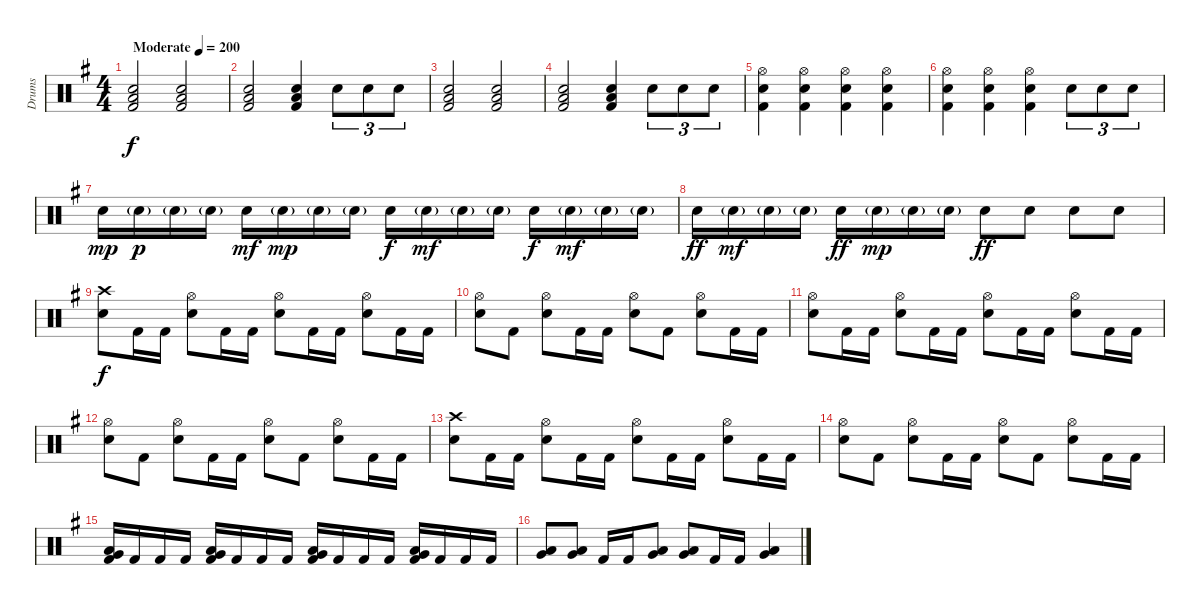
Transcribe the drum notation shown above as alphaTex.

\track ("Drums" "Drums") {instrument percussion}
\staff {score}
\articulation defaults
\ts (4 4)
\tempo (200 "Moderate")
\clef neutral
\ks eminor
("Low Floor Tom (hit)" "Snare (hit) 2" "Kick (hit) 2").2{dy f} ("Low Floor Tom (hit)" "Snare (hit) 2" "Kick (hit) 2").2 |
("Low Floor Tom (hit)" "Snare (hit) 2" "Kick (hit) 2").2 ("Low Floor Tom (hit)" "Snare (hit) 2" "Kick (hit) 2").4 "Snare (hit) 2".8{tu (3 2)} "Snare (hit) 2".8{tu (3 2)} "Snare (hit) 2".8{tu (3 2)} |
("Low Floor Tom (hit)" "Snare (hit) 2" "Kick (hit) 2").2 ("Low Floor Tom (hit)" "Snare (hit) 2" "Kick (hit) 2").2 |
("Low Floor Tom (hit)" "Snare (hit) 2" "Kick (hit) 2").2 ("Low Floor Tom (hit)" "Snare (hit) 2" "Kick (hit) 2").4 "Snare (hit) 2".8{tu (3 2)} "Snare (hit) 2".8{tu (3 2)} "Snare (hit) 2".8{tu (3 2)} |
("Hi-Hat (open)" "Snare (hit) 2" "Kick (hit) 2").4 ("Hi-Hat (open)" "Snare (hit) 2" "Kick (hit) 2").4 ("Hi-Hat (open)" "Snare (hit) 2" "Kick (hit) 2").4 ("Hi-Hat (open)" "Snare (hit) 2" "Kick (hit) 2").4 |
("Hi-Hat (open)" "Snare (hit) 2" "Kick (hit) 2").4 ("Hi-Hat (open)" "Snare (hit) 2" "Kick (hit) 2").4 ("Hi-Hat (open)" "Snare (hit) 2" "Kick (hit) 2").4 "Snare (hit) 2".8{tu (3 2)} "Snare (hit) 2".8{tu (3 2)} "Snare (hit) 2".8{tu (3 2)} |
"Snare (hit) 2".16{dy mp} "Snare (hit) 2"{g}.16{dy p} "Snare (hit) 2"{g}.16 "Snare (hit) 2"{g}.16 "Snare (hit) 2".16{dy mf} "Snare (hit) 2"{g}.16{dy mp} "Snare (hit) 2"{g}.16 "Snare (hit) 2"{g}.16 "Snare (hit) 2".16{dy f} "Snare (hit) 2"{g}.16{dy mf} "Snare (hit) 2"{g}.16 "Snare (hit) 2"{g}.16 "Snare (hit) 2".16{dy f} "Snare (hit) 2"{g}.16{dy mf} "Snare (hit) 2"{g}.16 "Snare (hit) 2"{g}.16 |
"Snare (hit) 2".16{dy ff} "Snare (hit) 2"{g}.16{dy mf} "Snare (hit) 2"{g}.16 "Snare (hit) 2"{g}.16 "Snare (hit) 2".16{dy ff} "Snare (hit) 2"{g}.16{dy mp} "Snare (hit) 2"{g}.16 "Snare (hit) 2"{g}.16 "Snare (hit) 2".8{dy ff} "Snare (hit) 2".8 "Snare (hit) 2".8 "Snare (hit) 2".8 |
("Crash high (hit)" "Snare (hit) 2").8{dy f} "Kick (hit) 2".16 "Kick (hit) 2".16 ("Hi-Hat (open)" "Snare (hit) 2").8 "Kick (hit) 2".16 "Kick (hit) 2".16 ("Hi-Hat (open)" "Snare (hit) 2").8 "Kick (hit) 2".16 "Kick (hit) 2".16 ("Hi-Hat (open)" "Snare (hit) 2").8 "Kick (hit) 2".16 "Kick (hit) 2".16 |
("Hi-Hat (open)" "Snare (hit) 2").8 "Kick (hit) 2".8 ("Hi-Hat (open)" "Snare (hit) 2").8 "Kick (hit) 2".16 "Kick (hit) 2".16 ("Hi-Hat (open)" "Snare (hit) 2").8 "Kick (hit) 2".8 ("Hi-Hat (open)" "Snare (hit) 2").8 "Kick (hit) 2".16 "Kick (hit) 2".16 |
("Hi-Hat (open)" "Snare (hit) 2").8 "Kick (hit) 2".16 "Kick (hit) 2".16 ("Hi-Hat (open)" "Snare (hit) 2").8 "Kick (hit) 2".16 "Kick (hit) 2".16 ("Hi-Hat (open)" "Snare (hit) 2").8 "Kick (hit) 2".16 "Kick (hit) 2".16 ("Hi-Hat (open)" "Snare (hit) 2").8 "Kick (hit) 2".16 "Kick (hit) 2".16 |
("Hi-Hat (open)" "Snare (hit) 2").8 "Kick (hit) 2".8 ("Hi-Hat (open)" "Snare (hit) 2").8 "Kick (hit) 2".16 "Kick (hit) 2".16 ("Hi-Hat (open)" "Snare (hit) 2").8 "Kick (hit) 2".8 ("Hi-Hat (open)" "Snare (hit) 2").8 "Kick (hit) 2".16 "Kick (hit) 2".16 |
("Crash high (hit)" "Snare (hit) 2").8 "Kick (hit) 2".16 "Kick (hit) 2".16 ("Hi-Hat (open)" "Snare (hit) 2").8 "Kick (hit) 2".16 "Kick (hit) 2".16 ("Hi-Hat (open)" "Snare (hit) 2").8 "Kick (hit) 2".16 "Kick (hit) 2".16 ("Hi-Hat (open)" "Snare (hit) 2").8 "Kick (hit) 2".16 "Kick (hit) 2".16 |
("Hi-Hat (open)" "Snare (hit) 2").8 "Kick (hit) 2".8 ("Hi-Hat (open)" "Snare (hit) 2").8 "Kick (hit) 2".16 "Kick (hit) 2".16 ("Hi-Hat (open)" "Snare (hit) 2").8 "Kick (hit) 2".8 ("Hi-Hat (open)" "Snare (hit) 2").8 "Kick (hit) 2".16 "Kick (hit) 2".16 |
("Very Low Tom (hit)" "Low Tom (hit)" "Kick (hit) 2").16 "Kick (hit) 2".16 "Kick (hit) 2".16 "Kick (hit) 2".16 ("Very Low Tom (hit)" "Low Tom (hit)" "Kick (hit) 2").16 "Kick (hit) 2".16 "Kick (hit) 2".16 "Kick (hit) 2".16 ("Very Low Tom (hit)" "Low Tom (hit)" "Kick (hit) 2").16 "Kick (hit) 2".16 "Kick (hit) 2".16 "Kick (hit) 2".16 ("Very Low Tom (hit)" "Low Tom (hit)" "Kick (hit) 2").16 "Kick (hit) 2".16 "Kick (hit) 2".16 "Kick (hit) 2".16 |
("Low Tom (hit)" "Very Low Tom (hit)").8 ("Low Tom (hit)" "Very Low Tom (hit)").8 "Kick (hit) 2".16 "Kick (hit) 2".16 ("Low Tom (hit)" "Very Low Tom (hit)").8 ("Low Tom (hit)" "Very Low Tom (hit)").8 "Kick (hit) 2".16 "Kick (hit) 2".16 ("Low Tom (hit)" "Very Low Tom (hit)").4
